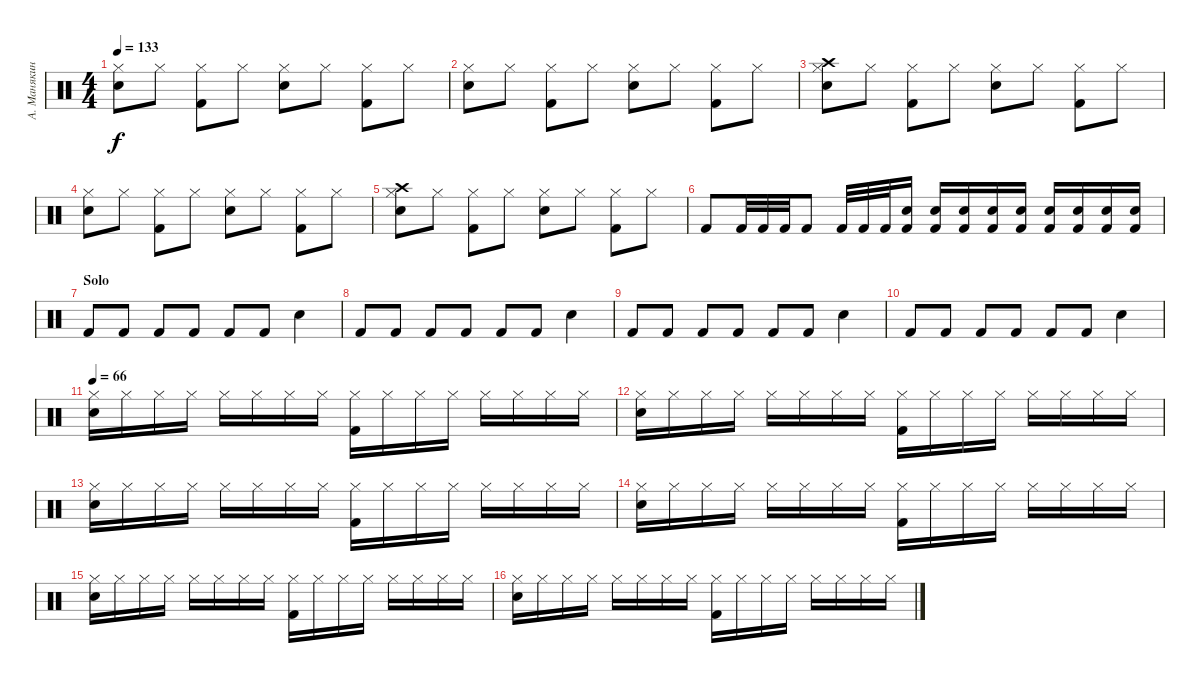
\track ("А. Манякин" "А. Манякин") {instrument percussion}
\staff {score}
\articulation defaults
\ts (4 4)
\tempo 133
\clef neutral
\ks c
("Hi-Hat (closed)" "Snare (hit) 2").8{dy f} "Hi-Hat (closed)".8 ("Hi-Hat (closed)" "Kick (hit) 2").8 "Hi-Hat (closed)".8 ("Hi-Hat (closed)" "Snare (hit) 2").8 "Hi-Hat (closed)".8 ("Hi-Hat (closed)" "Kick (hit) 2").8 "Hi-Hat (closed)".8 |
("Hi-Hat (closed)" "Snare (hit) 2").8 "Hi-Hat (closed)".8 ("Hi-Hat (closed)" "Kick (hit) 2").8 "Hi-Hat (closed)".8 ("Hi-Hat (closed)" "Snare (hit) 2").8 "Hi-Hat (closed)".8 ("Hi-Hat (closed)" "Kick (hit) 2").8 "Hi-Hat (closed)".8 |
("Hi-Hat (closed)" "Snare (hit) 2" "Crash high (hit)").8 "Hi-Hat (closed)".8 ("Hi-Hat (closed)" "Kick (hit) 2").8 "Hi-Hat (closed)".8 ("Hi-Hat (closed)" "Snare (hit) 2").8 "Hi-Hat (closed)".8 ("Hi-Hat (closed)" "Kick (hit) 2").8 "Hi-Hat (closed)".8 |
("Hi-Hat (closed)" "Snare (hit) 2").8 "Hi-Hat (closed)".8 ("Hi-Hat (closed)" "Kick (hit) 2").8 "Hi-Hat (closed)".8 ("Hi-Hat (closed)" "Snare (hit) 2").8 "Hi-Hat (closed)".8 ("Hi-Hat (closed)" "Kick (hit) 2").8 "Hi-Hat (closed)".8 |
("Hi-Hat (closed)" "Snare (hit) 2" "Crash high (hit)").8 "Hi-Hat (closed)".8 ("Hi-Hat (closed)" "Kick (hit) 2").8 "Hi-Hat (closed)".8 ("Hi-Hat (closed)" "Snare (hit) 2").8 "Hi-Hat (closed)".8 ("Hi-Hat (closed)" "Kick (hit) 2").8 "Hi-Hat (closed)".8 |
"Kick (hit) 2".8 "Kick (hit) 2".32 "Kick (hit) 2".32 "Kick (hit) 2".32 "Kick (hit) 2".8 "Kick (hit) 2".32 "Kick (hit) 2".32 "Kick (hit) 2".32 ("Snare (hit) 2" "Kick (hit) 2").16 ("Snare (hit) 2" "Kick (hit) 2").16 ("Snare (hit) 2" "Kick (hit) 2").16 ("Snare (hit) 2" "Kick (hit) 2").16 ("Snare (hit) 2" "Kick (hit) 2").16 ("Snare (hit) 2" "Kick (hit) 2").16 ("Snare (hit) 2" "Kick (hit) 2").16 ("Snare (hit) 2" "Kick (hit) 2").16 ("Snare (hit) 2" "Kick (hit) 2").16 |
\section ("" "Solo")
"Kick (hit) 2".8 "Kick (hit) 2".8 "Kick (hit) 2".8 "Kick (hit) 2".8 "Kick (hit) 2".8 "Kick (hit) 2".8 "Snare (hit) 2".4 |
"Kick (hit) 2".8 "Kick (hit) 2".8 "Kick (hit) 2".8 "Kick (hit) 2".8 "Kick (hit) 2".8 "Kick (hit) 2".8 "Snare (hit) 2".4 |
"Kick (hit) 2".8 "Kick (hit) 2".8 "Kick (hit) 2".8 "Kick (hit) 2".8 "Kick (hit) 2".8 "Kick (hit) 2".8 "Snare (hit) 2".4 |
"Kick (hit) 2".8 "Kick (hit) 2".8 "Kick (hit) 2".8 "Kick (hit) 2".8 "Kick (hit) 2".8 "Kick (hit) 2".8 "Snare (hit) 2".4 |
\tempo 66
("Hi-Hat (closed)" "Snare (hit) 2").16 "Hi-Hat (closed)".16 "Hi-Hat (closed)".16 "Hi-Hat (closed)".16 "Hi-Hat (closed)".16 "Hi-Hat (closed)".16 "Hi-Hat (closed)".16 "Hi-Hat (closed)".16 ("Hi-Hat (closed)" "Kick (hit) 2").16 "Hi-Hat (closed)".16 "Hi-Hat (closed)".16 "Hi-Hat (closed)".16 "Hi-Hat (closed)".16 "Hi-Hat (closed)".16 "Hi-Hat (closed)".16 "Hi-Hat (closed)".16 |
("Hi-Hat (closed)" "Snare (hit) 2").16 "Hi-Hat (closed)".16 "Hi-Hat (closed)".16 "Hi-Hat (closed)".16 "Hi-Hat (closed)".16 "Hi-Hat (closed)".16 "Hi-Hat (closed)".16 "Hi-Hat (closed)".16 ("Hi-Hat (closed)" "Kick (hit) 2").16 "Hi-Hat (closed)".16 "Hi-Hat (closed)".16 "Hi-Hat (closed)".16 "Hi-Hat (closed)".16 "Hi-Hat (closed)".16 "Hi-Hat (closed)".16 "Hi-Hat (closed)".16 |
("Hi-Hat (closed)" "Snare (hit) 2").16 "Hi-Hat (closed)".16 "Hi-Hat (closed)".16 "Hi-Hat (closed)".16 "Hi-Hat (closed)".16 "Hi-Hat (closed)".16 "Hi-Hat (closed)".16 "Hi-Hat (closed)".16 ("Hi-Hat (closed)" "Kick (hit) 2").16 "Hi-Hat (closed)".16 "Hi-Hat (closed)".16 "Hi-Hat (closed)".16 "Hi-Hat (closed)".16 "Hi-Hat (closed)".16 "Hi-Hat (closed)".16 "Hi-Hat (closed)".16 |
("Hi-Hat (closed)" "Snare (hit) 2").16 "Hi-Hat (closed)".16 "Hi-Hat (closed)".16 "Hi-Hat (closed)".16 "Hi-Hat (closed)".16 "Hi-Hat (closed)".16 "Hi-Hat (closed)".16 "Hi-Hat (closed)".16 ("Hi-Hat (closed)" "Kick (hit) 2").16 "Hi-Hat (closed)".16 "Hi-Hat (closed)".16 "Hi-Hat (closed)".16 "Hi-Hat (closed)".16 "Hi-Hat (closed)".16 "Hi-Hat (closed)".16 "Hi-Hat (closed)".16 |
("Hi-Hat (closed)" "Snare (hit) 2").16 "Hi-Hat (closed)".16 "Hi-Hat (closed)".16 "Hi-Hat (closed)".16 "Hi-Hat (closed)".16 "Hi-Hat (closed)".16 "Hi-Hat (closed)".16 "Hi-Hat (closed)".16 ("Hi-Hat (closed)" "Kick (hit) 2").16 "Hi-Hat (closed)".16 "Hi-Hat (closed)".16 "Hi-Hat (closed)".16 "Hi-Hat (closed)".16 "Hi-Hat (closed)".16 "Hi-Hat (closed)".16 "Hi-Hat (closed)".16 |
("Hi-Hat (closed)" "Snare (hit) 2").16 "Hi-Hat (closed)".16 "Hi-Hat (closed)".16 "Hi-Hat (closed)".16 "Hi-Hat (closed)".16 "Hi-Hat (closed)".16 "Hi-Hat (closed)".16 "Hi-Hat (closed)".16 ("Hi-Hat (closed)" "Kick (hit) 2").16 "Hi-Hat (closed)".16 "Hi-Hat (closed)".16 "Hi-Hat (closed)".16 "Hi-Hat (closed)".16 "Hi-Hat (closed)".16 "Hi-Hat (closed)".16 "Hi-Hat (closed)".16
